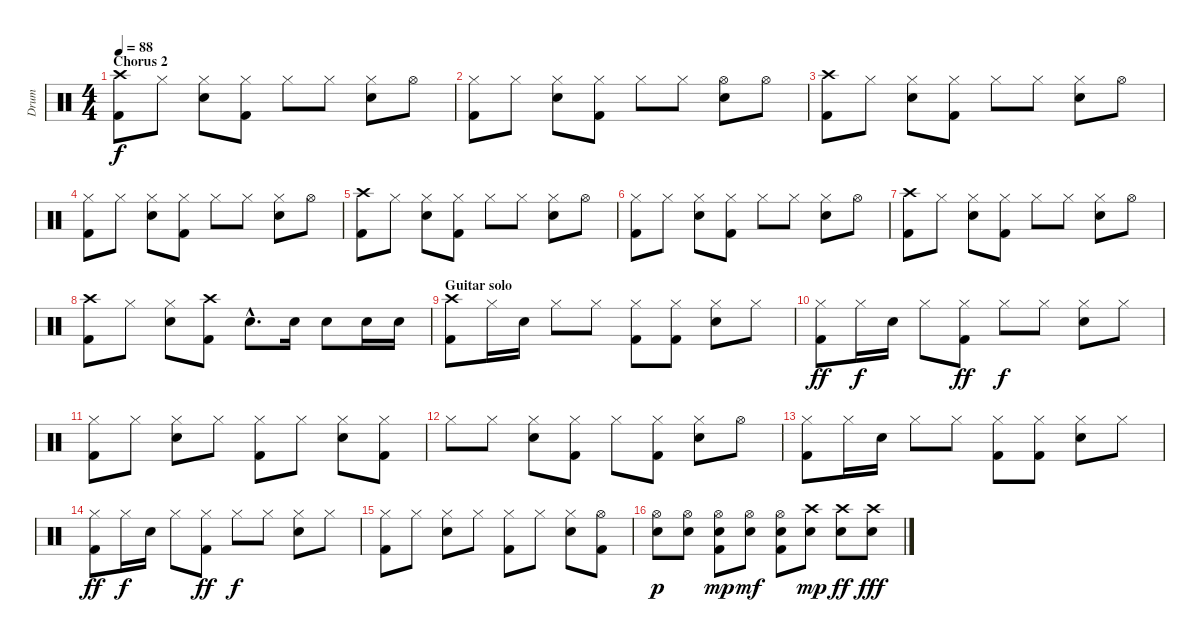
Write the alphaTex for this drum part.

\track ("Drum" "Drum") {instrument percussion}
\staff {score}
\articulation defaults
\ts (4 4)
\section ("" "Chorus 2")
\tempo 88
\clef neutral
\ks c
("Crash high (hit)" "Kick (hit) 2").8{dy f} "Hi-Hat (closed)".8 ("Hi-Hat (closed)" "Electric Snare (hit)").8 ("Hi-Hat (closed)" "Kick (hit) 2").8 "Hi-Hat (closed)".8 "Hi-Hat (closed)".8 ("Hi-Hat (closed)" "Electric Snare (hit)").8 "Hi-Hat (open)".8 |
("Hi-Hat (closed)" "Kick (hit) 2").8 "Hi-Hat (closed)".8 ("Hi-Hat (closed)" "Electric Snare (hit)").8 ("Hi-Hat (closed)" "Kick (hit) 2").8 "Hi-Hat (closed)".8 "Hi-Hat (closed)".8 ("Hi-Hat (open)" "Electric Snare (hit)").8 "Hi-Hat (open)".8 |
("Crash high (hit)" "Kick (hit) 2").8 "Hi-Hat (closed)".8 ("Hi-Hat (closed)" "Electric Snare (hit)").8 ("Hi-Hat (closed)" "Kick (hit) 2").8 "Hi-Hat (closed)".8 "Hi-Hat (closed)".8 ("Hi-Hat (closed)" "Electric Snare (hit)").8 "Hi-Hat (open)".8 |
("Hi-Hat (closed)" "Kick (hit) 2").8 "Hi-Hat (closed)".8 ("Hi-Hat (closed)" "Electric Snare (hit)").8 ("Hi-Hat (closed)" "Kick (hit) 2").8 "Hi-Hat (closed)".8 "Hi-Hat (closed)".8 ("Hi-Hat (closed)" "Electric Snare (hit)").8 "Hi-Hat (open)".8 |
("Crash high (hit)" "Kick (hit) 2").8 "Hi-Hat (closed)".8 ("Hi-Hat (closed)" "Electric Snare (hit)").8 ("Hi-Hat (closed)" "Kick (hit) 2").8 "Hi-Hat (closed)".8 "Hi-Hat (closed)".8 ("Hi-Hat (closed)" "Electric Snare (hit)").8 "Hi-Hat (open)".8 |
("Hi-Hat (closed)" "Kick (hit) 2").8 "Hi-Hat (closed)".8 ("Hi-Hat (closed)" "Electric Snare (hit)").8 ("Hi-Hat (closed)" "Kick (hit) 2").8 "Hi-Hat (closed)".8 "Hi-Hat (closed)".8 ("Hi-Hat (closed)" "Electric Snare (hit)").8 "Hi-Hat (open)".8 |
("Crash high (hit)" "Kick (hit) 2").8 "Hi-Hat (closed)".8 ("Hi-Hat (closed)" "Electric Snare (hit)").8 ("Hi-Hat (closed)" "Kick (hit) 2").8 "Hi-Hat (closed)".8 "Hi-Hat (closed)".8 ("Hi-Hat (closed)" "Electric Snare (hit)").8 "Hi-Hat (open)".8 |
("Crash high (hit)" "Kick (hit) 2").8 "Hi-Hat (closed)".8 ("Hi-Hat (closed)" "Electric Snare (hit)").8 ("Crash high (hit)" "Kick (hit) 2").8 "Electric Snare (hit)"{hac}.8{d} "Electric Snare (hit)".16 "Electric Snare (hit)".8 "Electric Snare (hit)".16 "Electric Snare (hit)".16 |
\section ("" "Guitar solo")
("Crash high (hit)" "Kick (hit) 2").8 "Hi-Hat (closed)".16 "Electric Snare (hit)".16 "Hi-Hat (closed)".8 "Hi-Hat (closed)".8 ("Hi-Hat (closed)" "Kick (hit) 2").8 ("Hi-Hat (closed)" "Kick (hit) 2").8 ("Hi-Hat (closed)" "Electric Snare (hit)").8 "Hi-Hat (closed)".8 |
("Hi-Hat (closed)" "Kick (hit) 2").8{dy ff} "Hi-Hat (closed)".16{dy f} "Electric Snare (hit)".16 "Hi-Hat (closed)".8 ("Hi-Hat (closed)" "Kick (hit) 2").8{dy ff} "Hi-Hat (closed)".8{dy f} "Hi-Hat (closed)".8 ("Hi-Hat (closed)" "Electric Snare (hit)").8 "Hi-Hat (closed)".8 |
("Hi-Hat (closed)" "Kick (hit) 2").8 "Hi-Hat (closed)".8 ("Hi-Hat (closed)" "Electric Snare (hit)").8 "Hi-Hat (closed)".8 ("Hi-Hat (closed)" "Kick (hit) 2").8 "Hi-Hat (closed)".8 ("Hi-Hat (closed)" "Electric Snare (hit)").8 ("Hi-Hat (closed)" "Kick (hit) 2").8 |
"Hi-Hat (closed)".8 "Hi-Hat (closed)".8 ("Hi-Hat (closed)" "Electric Snare (hit)").8 ("Hi-Hat (closed)" "Kick (hit) 2").8 "Hi-Hat (closed)".8 ("Hi-Hat (closed)" "Kick (hit) 2").8 ("Hi-Hat (closed)" "Electric Snare (hit)").8 "Hi-Hat (open)".8 |
("Hi-Hat (closed)" "Kick (hit) 2").8 "Hi-Hat (closed)".16 "Electric Snare (hit)".16 "Hi-Hat (closed)".8 "Hi-Hat (closed)".8 ("Hi-Hat (closed)" "Kick (hit) 2").8 ("Hi-Hat (closed)" "Kick (hit) 2").8 ("Hi-Hat (closed)" "Electric Snare (hit)").8 "Hi-Hat (closed)".8 |
("Hi-Hat (closed)" "Kick (hit) 2").8{dy ff} "Hi-Hat (closed)".16{dy f} "Electric Snare (hit)".16 "Hi-Hat (closed)".8 ("Hi-Hat (closed)" "Kick (hit) 2").8{dy ff} "Hi-Hat (closed)".8{dy f} "Hi-Hat (closed)".8 ("Hi-Hat (closed)" "Electric Snare (hit)").8 "Hi-Hat (closed)".8 |
("Hi-Hat (closed)" "Kick (hit) 2").8 "Hi-Hat (closed)".8 ("Hi-Hat (closed)" "Electric Snare (hit)").8 "Hi-Hat (closed)".8 ("Hi-Hat (closed)" "Kick (hit) 2").8 "Hi-Hat (closed)".8 ("Hi-Hat (closed)" "Electric Snare (hit)").8 ("Hi-Hat (open)" "Kick (hit) 2").8 |
("Hi-Hat (open)" "Electric Snare (hit)").8{dy p} ("Hi-Hat (open)" "Electric Snare (hit)").8 ("Hi-Hat (open)" "Electric Snare (hit)" "Kick (hit) 2").8{dy mp} ("Hi-Hat (open)" "Electric Snare (hit)").8{dy mf} ("Hi-Hat (open)" "Electric Snare (hit)" "Kick (hit) 2").8 ("Crash high (hit)" "Electric Snare (hit)").8{dy mp} ("Crash high (hit)" "Electric Snare (hit)").8{dy ff} ("Crash high (hit)" "Electric Snare (hit)").8{dy fff}
